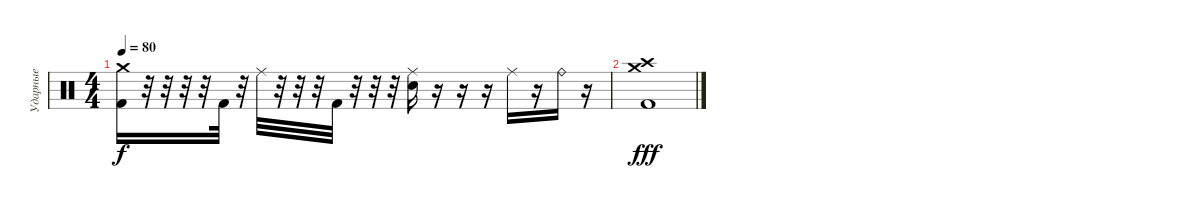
\track ("Ударные" "Ударные") {instrument percussion}
\staff {score}
\articulation defaults
\ts (4 4)
\tempo 80
\clef neutral
\ks c
("Crash medium (hit)" "Kick (hit) 2").16{dy f} r.32 r.32 r.32 r.32 "Kick (hit) 2".32 r.32 "Ride (middle)".32 r.32 r.32 r.32 "Kick (hit) 2".32 r.32 r.32 r.32 ("Ride (middle)" "Electric Snare (hit)").16 r.16 r.16 r.16 "Ride (middle)".16 r.16 "Ride (bell)".16 r.16 |
("Crash medium (hit)" "Crash high (hit)" "Kick (hit) 2").1{dy fff}
